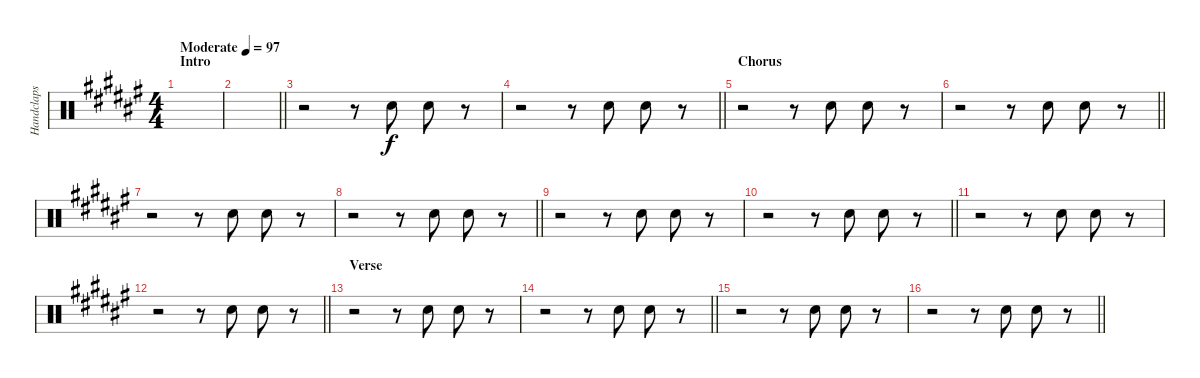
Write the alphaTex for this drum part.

\track ("Handclaps" "Handclaps") {instrument percussion}
\staff {score}
\articulation defaults
\ts (4 4)
\section ("" "Intro")
\tempo (97 "Moderate")
\clef neutral
\ks f#
|
\barLineRight lightlight
|
r.2 r.8 "Hand Clap (hit)".8 "Hand Clap (hit)".8 r.8 |
\barLineRight lightlight
r.2 r.8 "Hand Clap (hit)".8 "Hand Clap (hit)".8 r.8 |
\section ("" "Chorus")
r.2 r.8 "Hand Clap (hit)".8 "Hand Clap (hit)".8 r.8 |
\barLineRight lightlight
r.2 r.8 "Hand Clap (hit)".8 "Hand Clap (hit)".8 r.8 |
r.2 r.8 "Hand Clap (hit)".8 "Hand Clap (hit)".8 r.8 |
\barLineRight lightlight
r.2 r.8 "Hand Clap (hit)".8 "Hand Clap (hit)".8 r.8 |
r.2 r.8 "Hand Clap (hit)".8 "Hand Clap (hit)".8 r.8 |
\barLineRight lightlight
r.2 r.8 "Hand Clap (hit)".8 "Hand Clap (hit)".8 r.8 |
r.2 r.8 "Hand Clap (hit)".8 "Hand Clap (hit)".8 r.8 |
\barLineRight lightlight
r.2 r.8 "Hand Clap (hit)".8 "Hand Clap (hit)".8 r.8 |
\section ("" "Verse")
r.2 r.8 "Hand Clap (hit)".8 "Hand Clap (hit)".8 r.8 |
\barLineRight lightlight
r.2 r.8 "Hand Clap (hit)".8 "Hand Clap (hit)".8 r.8 |
r.2 r.8 "Hand Clap (hit)".8 "Hand Clap (hit)".8 r.8 |
\barLineRight lightlight
r.2 r.8 "Hand Clap (hit)".8 "Hand Clap (hit)".8 r.8
